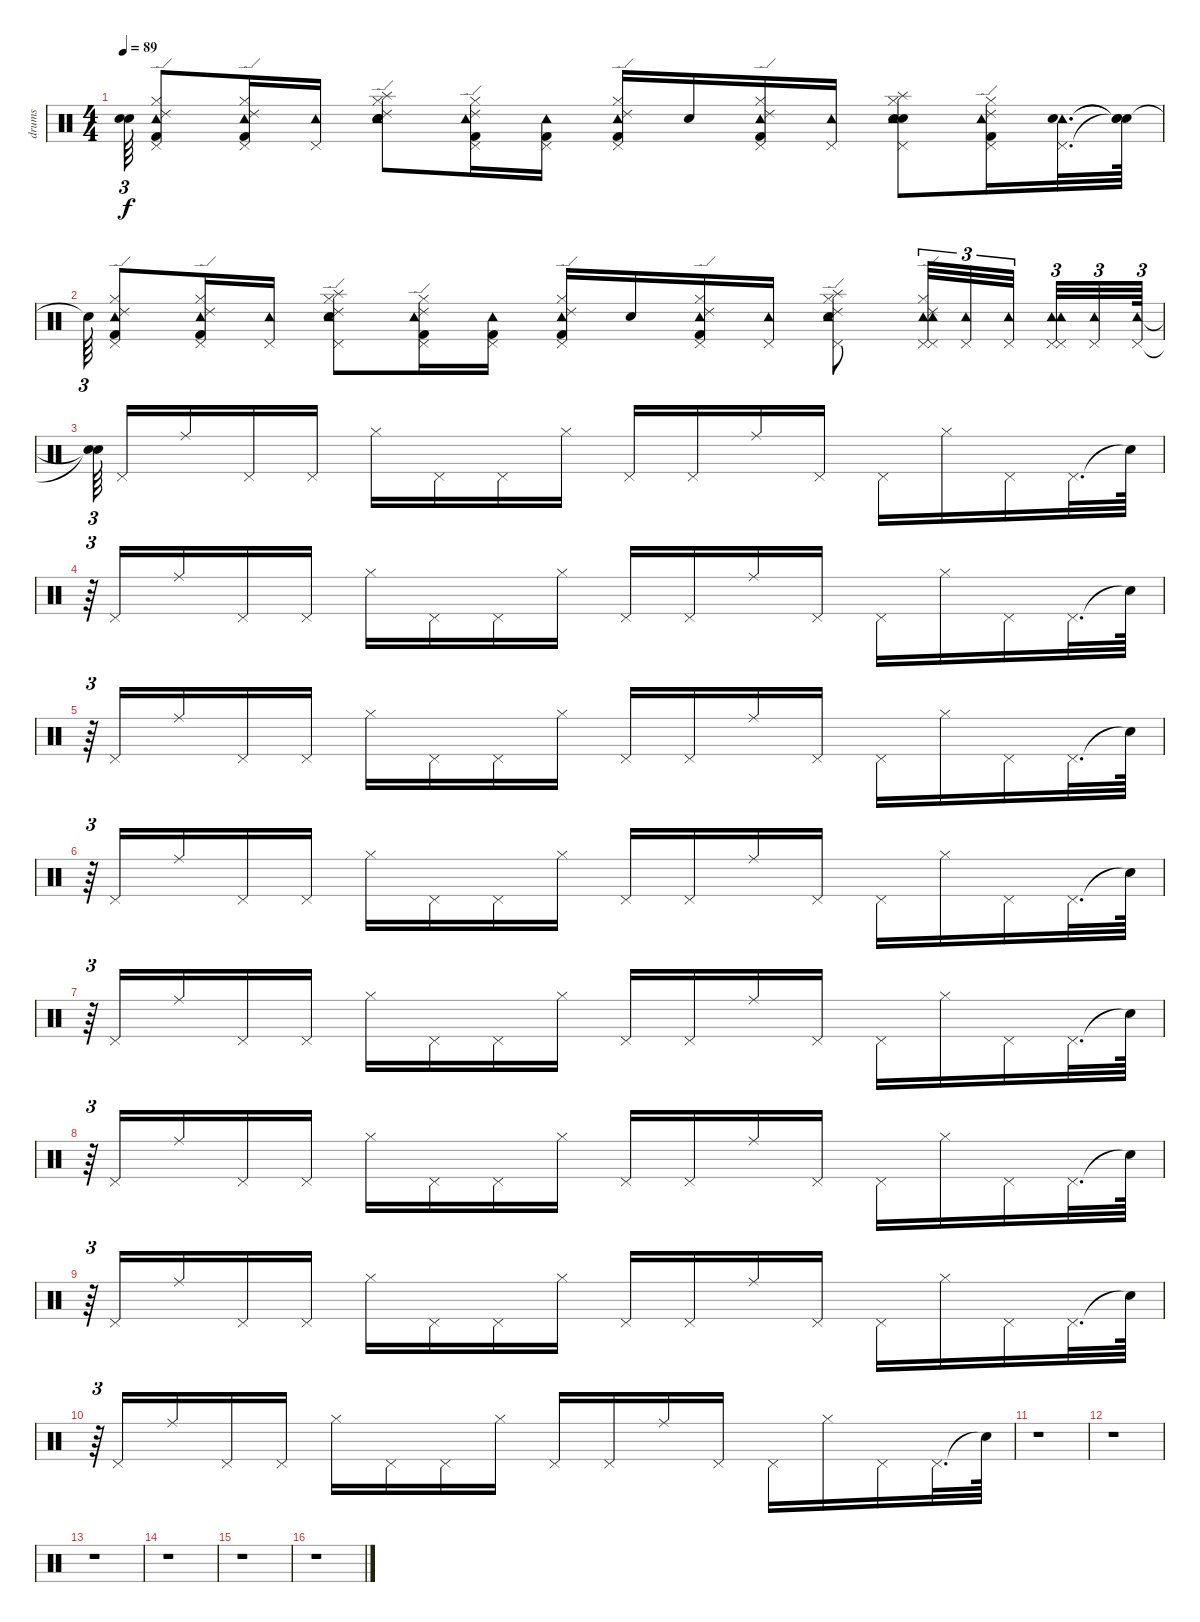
\track ("drums" "drums") {instrument percussion}
\staff {score}
\articulation defaults
\ts (4 4)
\tempo 89
\clef neutral
\ks c
("Snare (hit)"{t} "Snare (hit)"{t}).64{tu (3 2) dy f} ("Tambourine (hit)" "Hi-Hat (closed)" "Kick (hit) 2" "Ride (edge) 2" "Pedal Hi-Hat (hit)").8 ("Tambourine (hit)" "Hi-Hat (closed)" "Pedal Hi-Hat (hit)" "Kick (hit) 2" "Ride (edge) 2").16 ("Pedal Hi-Hat (hit)" "Tambourine (hit)").16 ("Electric Snare (hit)" "Electric Snare (hit)" "Ride (edge) 2" "Tambourine (hit)" "Splash (hit)" "Hi-Hat (closed)").8 ("Hi-Hat (closed)" "Kick (hit) 2" "Tambourine (hit)" "Ride (edge) 2" "Pedal Hi-Hat (hit)").16 ("Pedal Hi-Hat (hit)" "Kick (hit) 2" "Tambourine (hit)").16 ("Ride (edge) 2" "Kick (hit) 2" "Tambourine (hit)" "Pedal Hi-Hat (hit)" "Hi-Hat (closed)").16 "Electric Snare (hit)".16 ("Pedal Hi-Hat (hit)" "Kick (hit) 2" "Ride (edge) 2" "Hi-Hat (closed)" "Tambourine (hit)").16 ("Tambourine (hit)" "Pedal Hi-Hat (hit)").16 ("Hi-Hat (closed)" "Splash (hit)" "Pedal Hi-Hat (hit)" "Electric Snare (hit)" "Tambourine (hit)" "Electric Snare (hit)").8 ("Kick (hit) 2" "Pedal Hi-Hat (hit)" "Tambourine (hit)" "Hi-Hat (closed)" "Ride (edge) 2").16 ("Tambourine (hit)" "Pedal Hi-Hat (hit)" "Electric Snare (hit)").32{d} ("Snare (hit)"{t} "Snare (hit)"{t} "Snare (hit)"{t}).64 |
"Snare (hit)"{t}.64{tu (3 2)} ("Ride (edge) 2" "Kick (hit) 2" "Tambourine (hit)" "Pedal Hi-Hat (hit)" "Hi-Hat (closed)").8 ("Tambourine (hit)" "Kick (hit) 2" "Ride (edge) 2" "Pedal Hi-Hat (hit)" "Hi-Hat (closed)").16 ("Tambourine (hit)" "Pedal Hi-Hat (hit)").16 ("Pedal Hi-Hat (hit)" "Splash (hit)" "Ride (edge) 2" "Tambourine (hit)" "Hi-Hat (closed)" "Electric Snare (hit)").8 ("Ride (edge) 2" "Hi-Hat (closed)" "Kick (hit) 2" "Pedal Hi-Hat (hit)" "Tambourine (hit)").16 ("Tambourine (hit)" "Kick (hit) 2" "Pedal Hi-Hat (hit)").16 ("Hi-Hat (closed)" "Tambourine (hit)" "Ride (edge) 2" "Pedal Hi-Hat (hit)" "Kick (hit) 2").16 "Electric Snare (hit)".16 ("Tambourine (hit)" "Hi-Hat (closed)" "Pedal Hi-Hat (hit)" "Ride (edge) 2" "Kick (hit) 2").16 ("Pedal Hi-Hat (hit)" "Tambourine (hit)").16 ("Pedal Hi-Hat (hit)" "Hi-Hat (closed)" "Tambourine (hit)" "Splash (hit)" "Ride (edge) 2" "Electric Snare (hit)").8 ("Tambourine (hit)" "Pedal Hi-Hat (hit)" "Hi-Hat (closed)" "Pedal Hi-Hat (hit)" "Tambourine (hit)" "Ride (edge) 2").32{tu (3 2)} ("Tambourine (hit)" "Pedal Hi-Hat (hit)").32{tu (3 2)} ("Tambourine (hit)" "Pedal Hi-Hat (hit)").32{tu (3 2) beam splitsecondary} ("Pedal Hi-Hat (hit)" "Pedal Hi-Hat (hit)" "Tambourine (hit)" "Tambourine (hit)").32{tu (3 2)} ("Tambourine (hit)" "Pedal Hi-Hat (hit)").32{tu (3 2)} ("Tambourine (hit)" "Pedal Hi-Hat (hit)").64{tu (3 2)} |
("Snare (hit)"{t} "Snare (hit)"{t}).64{tu (3 2) beam splitsecondary} "Pedal Hi-Hat (hit)".16 "Ride (middle)".16 "Pedal Hi-Hat (hit)".16 "Pedal Hi-Hat (hit)".16 "Hi-Hat (closed)".16 "Pedal Hi-Hat (hit)".16 "Pedal Hi-Hat (hit)".16 "Hi-Hat (closed)".16 "Pedal Hi-Hat (hit)".16 "Pedal Hi-Hat (hit)".16 "Ride (middle)".16 "Pedal Hi-Hat (hit)".16 "Pedal Hi-Hat (hit)".16 "Hi-Hat (closed)".16 "Pedal Hi-Hat (hit)".16 "Pedal Hi-Hat (hit)".32{d} "Snare (hit)"{t}.64 |
r.64{tu (3 2)} "Pedal Hi-Hat (hit)".16 "Ride (middle)".16 "Pedal Hi-Hat (hit)".16 "Pedal Hi-Hat (hit)".16 "Hi-Hat (closed)".16 "Pedal Hi-Hat (hit)".16 "Pedal Hi-Hat (hit)".16 "Hi-Hat (closed)".16 "Pedal Hi-Hat (hit)".16 "Pedal Hi-Hat (hit)".16 "Ride (middle)".16 "Pedal Hi-Hat (hit)".16 "Pedal Hi-Hat (hit)".16 "Hi-Hat (closed)".16 "Pedal Hi-Hat (hit)".16 "Pedal Hi-Hat (hit)".32{d} "Snare (hit)"{t}.64 |
r.64{tu (3 2)} "Pedal Hi-Hat (hit)".16 "Ride (middle)".16 "Pedal Hi-Hat (hit)".16 "Pedal Hi-Hat (hit)".16 "Hi-Hat (closed)".16 "Pedal Hi-Hat (hit)".16 "Pedal Hi-Hat (hit)".16 "Hi-Hat (closed)".16 "Pedal Hi-Hat (hit)".16 "Pedal Hi-Hat (hit)".16 "Ride (middle)".16 "Pedal Hi-Hat (hit)".16 "Pedal Hi-Hat (hit)".16 "Hi-Hat (closed)".16 "Pedal Hi-Hat (hit)".16 "Pedal Hi-Hat (hit)".32{d} "Snare (hit)"{t}.64 |
r.64{tu (3 2)} "Pedal Hi-Hat (hit)".16 "Ride (middle)".16 "Pedal Hi-Hat (hit)".16 "Pedal Hi-Hat (hit)".16 "Hi-Hat (closed)".16 "Pedal Hi-Hat (hit)".16 "Pedal Hi-Hat (hit)".16 "Hi-Hat (closed)".16 "Pedal Hi-Hat (hit)".16 "Pedal Hi-Hat (hit)".16 "Ride (middle)".16 "Pedal Hi-Hat (hit)".16 "Pedal Hi-Hat (hit)".16 "Hi-Hat (closed)".16 "Pedal Hi-Hat (hit)".16 "Pedal Hi-Hat (hit)".32{d} "Snare (hit)"{t}.64 |
r.64{tu (3 2)} "Pedal Hi-Hat (hit)".16 "Ride (middle)".16 "Pedal Hi-Hat (hit)".16 "Pedal Hi-Hat (hit)".16 "Hi-Hat (closed)".16 "Pedal Hi-Hat (hit)".16 "Pedal Hi-Hat (hit)".16 "Hi-Hat (closed)".16 "Pedal Hi-Hat (hit)".16 "Pedal Hi-Hat (hit)".16 "Ride (middle)".16 "Pedal Hi-Hat (hit)".16 "Pedal Hi-Hat (hit)".16 "Hi-Hat (closed)".16 "Pedal Hi-Hat (hit)".16 "Pedal Hi-Hat (hit)".32{d} "Snare (hit)"{t}.64 |
r.64{tu (3 2)} "Pedal Hi-Hat (hit)".16 "Ride (middle)".16 "Pedal Hi-Hat (hit)".16 "Pedal Hi-Hat (hit)".16 "Hi-Hat (closed)".16 "Pedal Hi-Hat (hit)".16 "Pedal Hi-Hat (hit)".16 "Hi-Hat (closed)".16 "Pedal Hi-Hat (hit)".16 "Pedal Hi-Hat (hit)".16 "Ride (middle)".16 "Pedal Hi-Hat (hit)".16 "Pedal Hi-Hat (hit)".16 "Hi-Hat (closed)".16 "Pedal Hi-Hat (hit)".16 "Pedal Hi-Hat (hit)".32{d} "Snare (hit)"{t}.64 |
r.64{tu (3 2)} "Pedal Hi-Hat (hit)".16 "Ride (middle)".16 "Pedal Hi-Hat (hit)".16 "Pedal Hi-Hat (hit)".16 "Hi-Hat (closed)".16 "Pedal Hi-Hat (hit)".16 "Pedal Hi-Hat (hit)".16 "Hi-Hat (closed)".16 "Pedal Hi-Hat (hit)".16 "Pedal Hi-Hat (hit)".16 "Ride (middle)".16 "Pedal Hi-Hat (hit)".16 "Pedal Hi-Hat (hit)".16 "Hi-Hat (closed)".16 "Pedal Hi-Hat (hit)".16 "Pedal Hi-Hat (hit)".32{d} "Snare (hit)"{t}.64 |
r.64{tu (3 2)} "Pedal Hi-Hat (hit)".16 "Ride (middle)".16 "Pedal Hi-Hat (hit)".16 "Pedal Hi-Hat (hit)".16 "Hi-Hat (closed)".16 "Pedal Hi-Hat (hit)".16 "Pedal Hi-Hat (hit)".16 "Hi-Hat (closed)".16 "Pedal Hi-Hat (hit)".16 "Pedal Hi-Hat (hit)".16 "Ride (middle)".16 "Pedal Hi-Hat (hit)".16 "Pedal Hi-Hat (hit)".16 "Hi-Hat (closed)".16 "Pedal Hi-Hat (hit)".16 "Pedal Hi-Hat (hit)".32{d} "Snare (hit)"{t}.64 |
r.1 |
r.1 |
r.1 |
r.1 |
r.1 |
r.1
